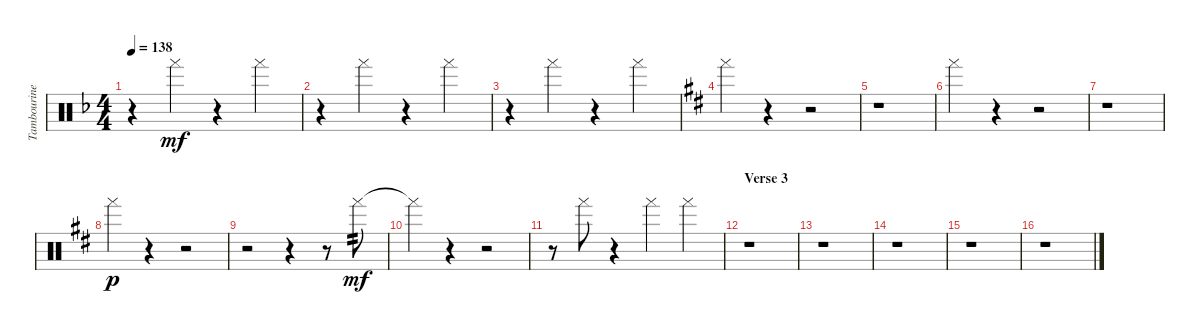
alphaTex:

\track ("Tambourine" "Tambourine") {instrument percussion}
\staff {score}
\articulation defaults
\ts (4 4)
\tempo 138
\clef neutral
\ks f
r.4{dy mf} "Tambourine (hand)".4 r.4 "Tambourine (hand)".4 |
r.4 "Tambourine (hand)".4 r.4 "Tambourine (hand)".4 |
r.4 "Tambourine (hand)".4 r.4 "Tambourine (hand)".4 |
\ks d "Tambourine (hand)".4
r.4 r.2 |
r.1 |
"Tambourine (hand)".4 r.4 r.2 |
r.1 |
"Tambourine (hand)".4{dy p} r.4 r.2 |
r.2 r.4 r.8 "Tambourine (hand)".8{tp 2 dy mf} |
"Tambourine (hand)"{t}.4 r.4 r.2 |
r.8 "Tambourine (hand)".8 r.4 "Tambourine (hand)".4 "Tambourine (hand)".4 |
\section ("" "Verse 3")
r.1 |
r.1 |
r.1 |
r.1 |
r.1
